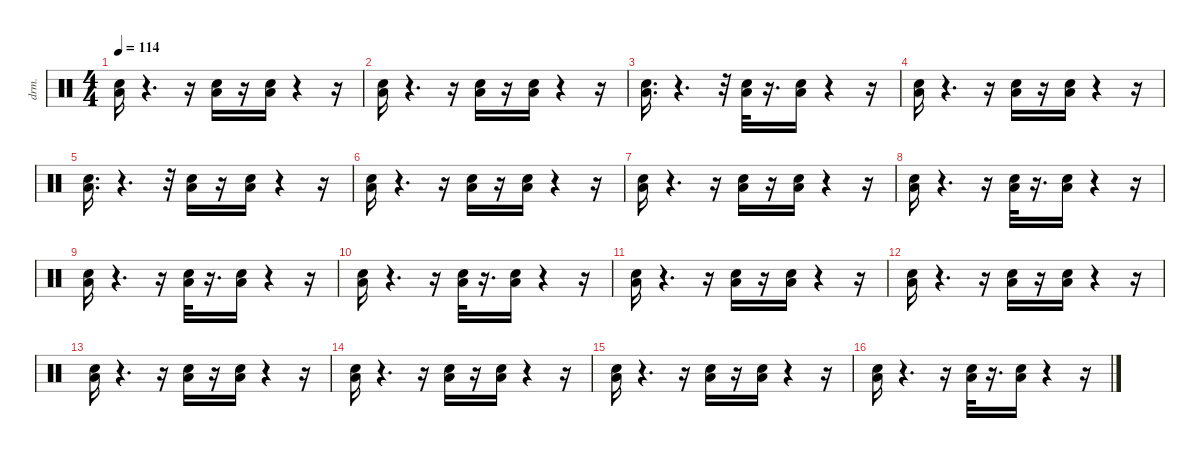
\defaultSystemsLayout 4
\hideDynamics
\bracketExtendMode nobrackets
\otherSystemsTrackNameOrientation horizontal
\track ("Taiko drum" "drm.") {instrument percussion}
\staff {score}
\articulation defaults
\ts (4 4)
\tempo 114
\clef neutral
\ks c
("Low Floor Tom (hit)" "Snare (hit) 2").16{dy fff} r.4{d} r.16 ("Low Floor Tom (hit)" "Snare (hit) 2").16 r.16 ("Low Floor Tom (hit)" "Snare (hit) 2").16 r.4 r.16 |
("Low Floor Tom (hit)" "Snare (hit) 2").16 r.4{d} r.16 ("Low Floor Tom (hit)" "Snare (hit) 2").16 r.16 ("Low Floor Tom (hit)" "Snare (hit) 2").16 r.4 r.16 |
("Low Floor Tom (hit)" "Snare (hit) 2").16{d} r.4{d} r.32 ("Low Floor Tom (hit)" "Snare (hit) 2").32 r.16{d} ("Low Floor Tom (hit)" "Snare (hit) 2").16 r.4 r.16 |
("Low Floor Tom (hit)" "Snare (hit) 2").16 r.4{d} r.16 ("Low Floor Tom (hit)" "Snare (hit) 2").16 r.16 ("Low Floor Tom (hit)" "Snare (hit) 2").16 r.4 r.16 |
("Low Floor Tom (hit)" "Snare (hit) 2").16{d} r.4{d} r.32 ("Low Floor Tom (hit)" "Snare (hit) 2").16 r.16 ("Low Floor Tom (hit)" "Snare (hit) 2").16 r.4 r.16 |
("Low Floor Tom (hit)" "Snare (hit) 2").16 r.4{d} r.16 ("Low Floor Tom (hit)" "Snare (hit) 2").16 r.16 ("Low Floor Tom (hit)" "Snare (hit) 2").16 r.4 r.16 |
("Low Floor Tom (hit)" "Snare (hit) 2").16 r.4{d} r.16 ("Low Floor Tom (hit)" "Snare (hit) 2").16 r.16 ("Low Floor Tom (hit)" "Snare (hit) 2").16 r.4 r.16 |
("Low Floor Tom (hit)" "Snare (hit) 2").16 r.4{d} r.16 ("Low Floor Tom (hit)" "Snare (hit) 2").32 r.16{d} ("Low Floor Tom (hit)" "Snare (hit) 2").16 r.4 r.16 |
("Low Floor Tom (hit)" "Snare (hit) 2").16 r.4{d} r.16 ("Low Floor Tom (hit)" "Snare (hit) 2").32 r.16{d} ("Low Floor Tom (hit)" "Snare (hit) 2").16 r.4 r.16 |
("Low Floor Tom (hit)" "Snare (hit) 2").16 r.4{d} r.16 ("Low Floor Tom (hit)" "Snare (hit) 2").32 r.16{d} ("Low Floor Tom (hit)" "Snare (hit) 2").16 r.4 r.16 |
("Low Floor Tom (hit)" "Snare (hit) 2").16 r.4{d} r.16 ("Low Floor Tom (hit)" "Snare (hit) 2").16 r.16 ("Low Floor Tom (hit)" "Snare (hit) 2").16 r.4 r.16 |
("Low Floor Tom (hit)" "Snare (hit) 2").16 r.4{d} r.16 ("Low Floor Tom (hit)" "Snare (hit) 2").16 r.16 ("Low Floor Tom (hit)" "Snare (hit) 2").16 r.4 r.16 |
("Low Floor Tom (hit)" "Snare (hit) 2").16 r.4{d} r.16 ("Low Floor Tom (hit)" "Snare (hit) 2").16 r.16 ("Low Floor Tom (hit)" "Snare (hit) 2").16 r.4 r.16 |
("Low Floor Tom (hit)" "Snare (hit) 2").16 r.4{d} r.16 ("Low Floor Tom (hit)" "Snare (hit) 2").16 r.16 ("Low Floor Tom (hit)" "Snare (hit) 2").16 r.4 r.16 |
("Low Floor Tom (hit)" "Snare (hit) 2").16 r.4{d} r.16 ("Low Floor Tom (hit)" "Snare (hit) 2").16 r.16 ("Low Floor Tom (hit)" "Snare (hit) 2").16 r.4 r.16 |
("Low Floor Tom (hit)" "Snare (hit) 2").16 r.4{d} r.16 ("Low Floor Tom (hit)" "Snare (hit) 2").32 r.16{d} ("Low Floor Tom (hit)" "Snare (hit) 2").16 r.4 r.16
